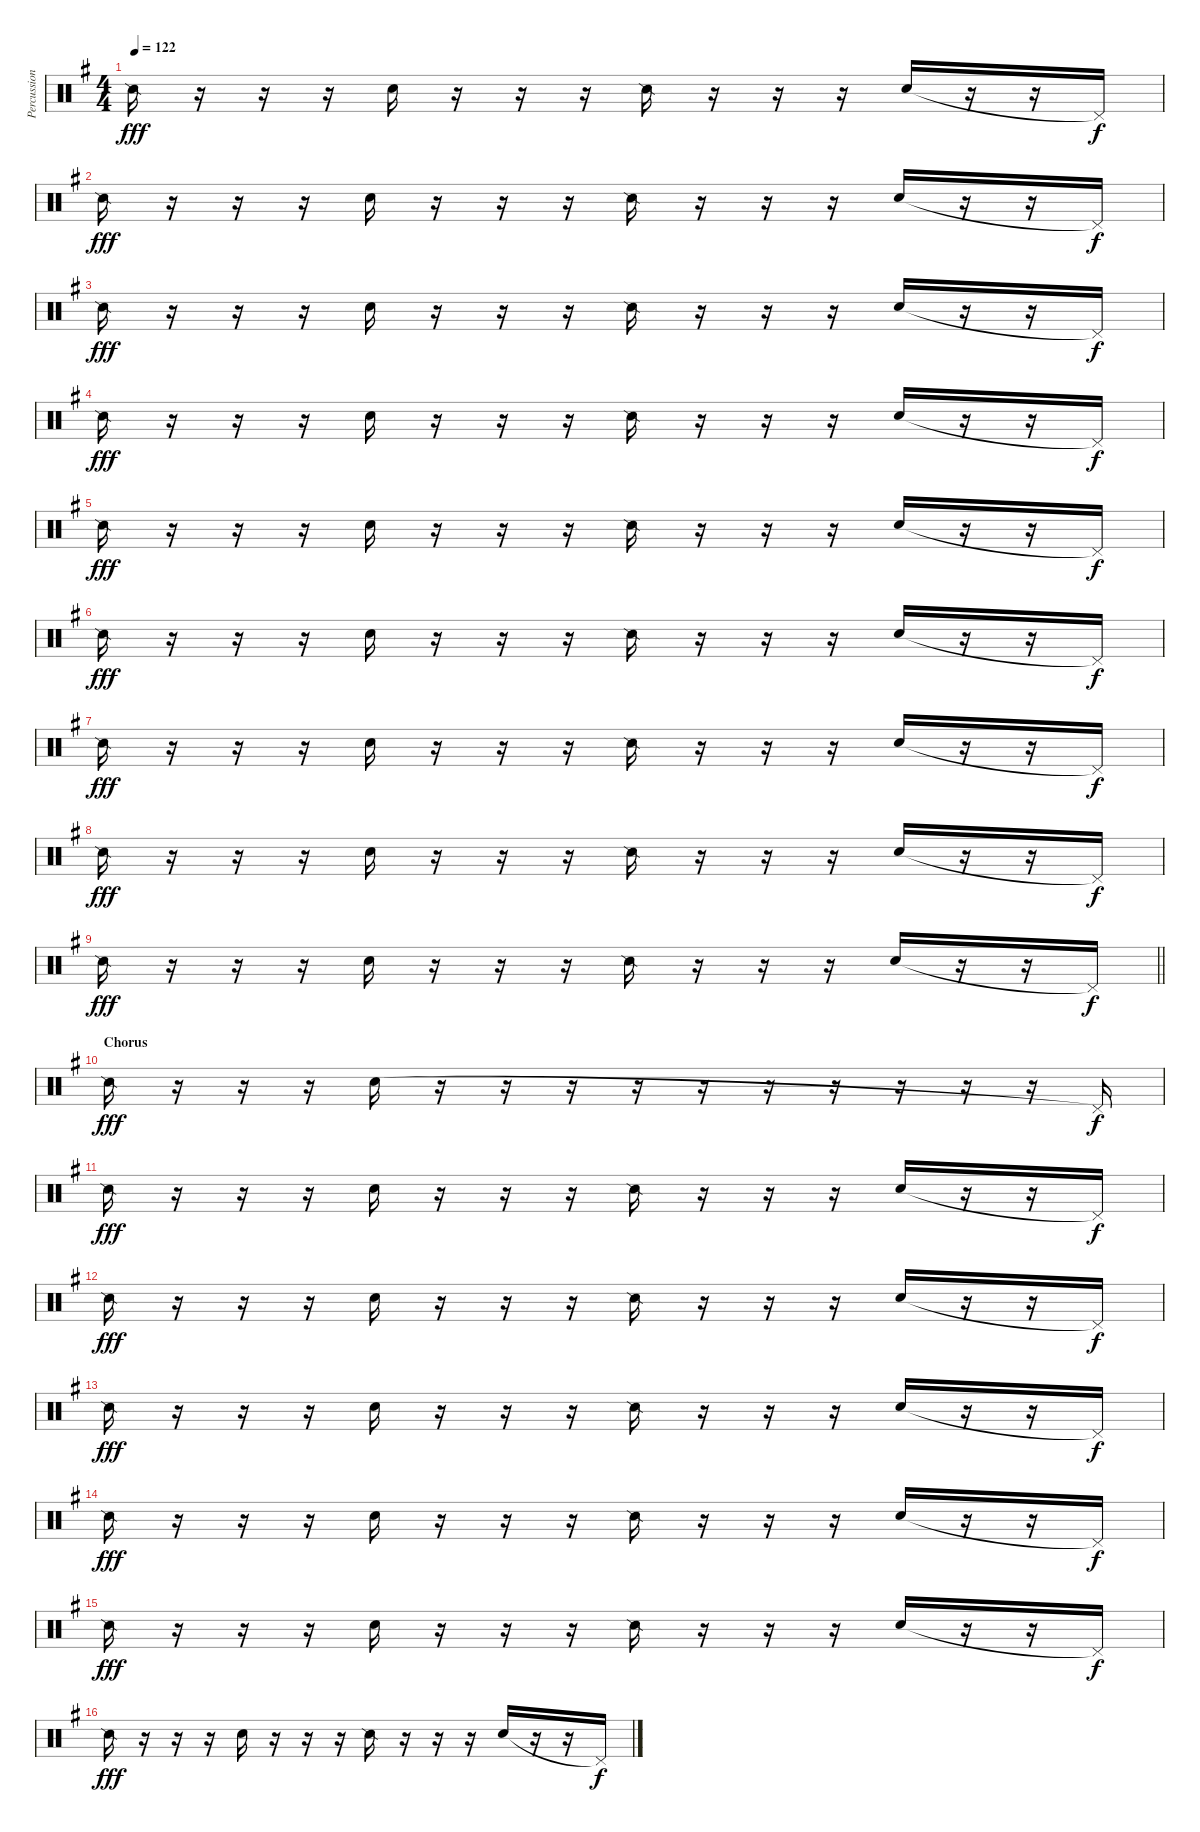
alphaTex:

\track ("Percussion" "Percussion") {instrument percussion}
\staff {score}
\articulation defaults
\ts (4 4)
\tempo 122
\clef neutral
\ks g "Snare (side stick) 2".16{dy fff}
r.16 r.16 r.16 "Hand Clap (hit)".16 r.16 r.16 r.16 "Snare (side stick) 2".16 r.16 r.16 r.16 "Hand Clap (hit)".16 r.16 r.16 "Pedal Hi-Hat (hit)"{t}.16{dy f} |
"Snare (side stick) 2".16{dy fff} r.16 r.16 r.16 "Hand Clap (hit)".16 r.16 r.16 r.16 "Snare (side stick) 2".16 r.16 r.16 r.16 "Hand Clap (hit)".16 r.16 r.16 "Pedal Hi-Hat (hit)"{t}.16{dy f} |
"Snare (side stick) 2".16{dy fff} r.16 r.16 r.16 "Hand Clap (hit)".16 r.16 r.16 r.16 "Snare (side stick) 2".16 r.16 r.16 r.16 "Hand Clap (hit)".16 r.16 r.16 "Pedal Hi-Hat (hit)"{t}.16{dy f} |
"Snare (side stick) 2".16{dy fff} r.16 r.16 r.16 "Hand Clap (hit)".16 r.16 r.16 r.16 "Snare (side stick) 2".16 r.16 r.16 r.16 "Hand Clap (hit)".16 r.16 r.16 "Pedal Hi-Hat (hit)"{t}.16{dy f} |
"Snare (side stick) 2".16{dy fff} r.16 r.16 r.16 "Hand Clap (hit)".16 r.16 r.16 r.16 "Snare (side stick) 2".16 r.16 r.16 r.16 "Hand Clap (hit)".16 r.16 r.16 "Pedal Hi-Hat (hit)"{t}.16{dy f} |
"Snare (side stick) 2".16{dy fff} r.16 r.16 r.16 "Hand Clap (hit)".16 r.16 r.16 r.16 "Snare (side stick) 2".16 r.16 r.16 r.16 "Hand Clap (hit)".16 r.16 r.16 "Pedal Hi-Hat (hit)"{t}.16{dy f} |
"Snare (side stick) 2".16{dy fff} r.16 r.16 r.16 "Hand Clap (hit)".16 r.16 r.16 r.16 "Snare (side stick) 2".16 r.16 r.16 r.16 "Hand Clap (hit)".16 r.16 r.16 "Pedal Hi-Hat (hit)"{t}.16{dy f} |
"Snare (side stick) 2".16{dy fff} r.16 r.16 r.16 "Hand Clap (hit)".16 r.16 r.16 r.16 "Snare (side stick) 2".16 r.16 r.16 r.16 "Hand Clap (hit)".16 r.16 r.16 "Pedal Hi-Hat (hit)"{t}.16{dy f} |
\barLineRight lightlight "Snare (side stick) 2".16{dy fff}
r.16 r.16 r.16 "Hand Clap (hit)".16 r.16 r.16 r.16 "Snare (side stick) 2".16 r.16 r.16 r.16 "Hand Clap (hit)".16 r.16 r.16 "Pedal Hi-Hat (hit)"{t}.16{dy f} |
\section ("" "Chorus")
"Snare (side stick) 2".16{dy fff} r.16 r.16 r.16 "Hand Clap (hit)".16 r.16 r.16 r.16 r.16 r.16 r.16 r.16 r.16 r.16 r.16 "Pedal Hi-Hat (hit)"{t}.16{dy f} |
"Snare (side stick) 2".16{dy fff} r.16 r.16 r.16 "Hand Clap (hit)".16 r.16 r.16 r.16 "Snare (side stick) 2".16 r.16 r.16 r.16 "Hand Clap (hit)".16 r.16 r.16 "Pedal Hi-Hat (hit)"{t}.16{dy f} |
"Snare (side stick) 2".16{dy fff} r.16 r.16 r.16 "Hand Clap (hit)".16 r.16 r.16 r.16 "Snare (side stick) 2".16 r.16 r.16 r.16 "Hand Clap (hit)".16 r.16 r.16 "Pedal Hi-Hat (hit)"{t}.16{dy f} |
"Snare (side stick) 2".16{dy fff} r.16 r.16 r.16 "Hand Clap (hit)".16 r.16 r.16 r.16 "Snare (side stick) 2".16 r.16 r.16 r.16 "Hand Clap (hit)".16 r.16 r.16 "Pedal Hi-Hat (hit)"{t}.16{dy f} |
"Snare (side stick) 2".16{dy fff} r.16 r.16 r.16 "Hand Clap (hit)".16 r.16 r.16 r.16 "Snare (side stick) 2".16 r.16 r.16 r.16 "Hand Clap (hit)".16 r.16 r.16 "Pedal Hi-Hat (hit)"{t}.16{dy f} |
"Snare (side stick) 2".16{dy fff} r.16 r.16 r.16 "Hand Clap (hit)".16 r.16 r.16 r.16 "Snare (side stick) 2".16 r.16 r.16 r.16 "Hand Clap (hit)".16 r.16 r.16 "Pedal Hi-Hat (hit)"{t}.16{dy f} |
"Snare (side stick) 2".16{dy fff} r.16 r.16 r.16 "Hand Clap (hit)".16 r.16 r.16 r.16 "Snare (side stick) 2".16 r.16 r.16 r.16 "Hand Clap (hit)".16 r.16 r.16 "Pedal Hi-Hat (hit)"{t}.16{dy f}
